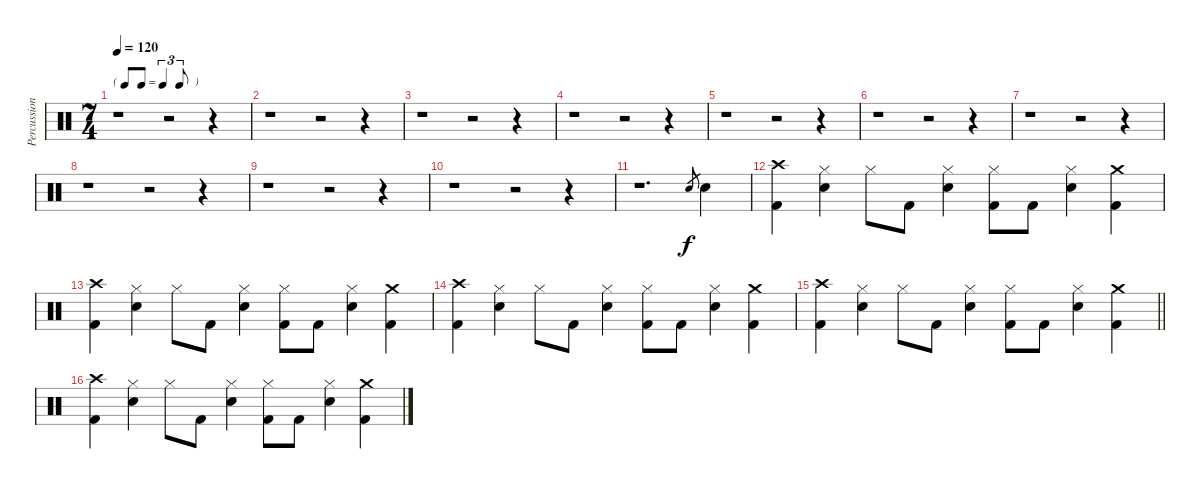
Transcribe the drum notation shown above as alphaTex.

\track ("Percussion" "Percussion") {instrument percussion}
\staff {score}
\articulation defaults
\ts (7 4)
\tf triplet8th
\tempo 120
\clef neutral
\ks c
r.1{dy f} r.2 r.4 |
r.1 r.2 r.4 |
r.1 r.2 r.4 |
r.1 r.2 r.4 |
r.1 r.2 r.4 |
r.1 r.2 r.4 |
r.1 r.2 r.4 |
r.1 r.2 r.4 |
r.1 r.2 r.4 |
r.1 r.2 r.4 |
r.1{d} "Electric Snare (hit)".8{gr} "Electric Snare (hit)".4 |
("Crash high (hit)" "Kick (hit) 2").4 ("Hi-Hat (closed)" "Electric Snare (hit)").4 "Hi-Hat (closed)".8 "Kick (hit) 2".8 ("Hi-Hat (closed)" "Electric Snare (hit)").4 ("Hi-Hat (closed)" "Kick (hit) 2").8 "Kick (hit) 2".8 ("Hi-Hat (closed)" "Electric Snare (hit)").4 ("Crash medium (hit)" "Kick (hit) 2").4 |
("Crash high (hit)" "Kick (hit) 2").4 ("Hi-Hat (closed)" "Electric Snare (hit)").4 "Hi-Hat (closed)".8 "Kick (hit) 2".8 ("Hi-Hat (closed)" "Electric Snare (hit)").4 ("Hi-Hat (closed)" "Kick (hit) 2").8 "Kick (hit) 2".8 ("Hi-Hat (closed)" "Electric Snare (hit)").4 ("Crash medium (hit)" "Kick (hit) 2").4 |
("Crash high (hit)" "Kick (hit) 2").4 ("Hi-Hat (closed)" "Electric Snare (hit)").4 "Hi-Hat (closed)".8 "Kick (hit) 2".8 ("Hi-Hat (closed)" "Electric Snare (hit)").4 ("Hi-Hat (closed)" "Kick (hit) 2").8 "Kick (hit) 2".8 ("Hi-Hat (closed)" "Electric Snare (hit)").4 ("Crash medium (hit)" "Kick (hit) 2").4 |
\barLineRight lightlight
("Crash high (hit)" "Kick (hit) 2").4 ("Hi-Hat (closed)" "Electric Snare (hit)").4 "Hi-Hat (closed)".8 "Kick (hit) 2".8 ("Hi-Hat (closed)" "Electric Snare (hit)").4 ("Hi-Hat (closed)" "Kick (hit) 2").8 "Kick (hit) 2".8 ("Hi-Hat (closed)" "Electric Snare (hit)").4 ("Crash medium (hit)" "Kick (hit) 2").4 |
("Crash high (hit)" "Kick (hit) 2").4 ("Hi-Hat (closed)" "Electric Snare (hit)").4 "Hi-Hat (closed)".8 "Kick (hit) 2".8 ("Hi-Hat (closed)" "Electric Snare (hit)").4 ("Hi-Hat (closed)" "Kick (hit) 2").8 "Kick (hit) 2".8 ("Hi-Hat (closed)" "Electric Snare (hit)").4 ("Crash medium (hit)" "Kick (hit) 2").4
